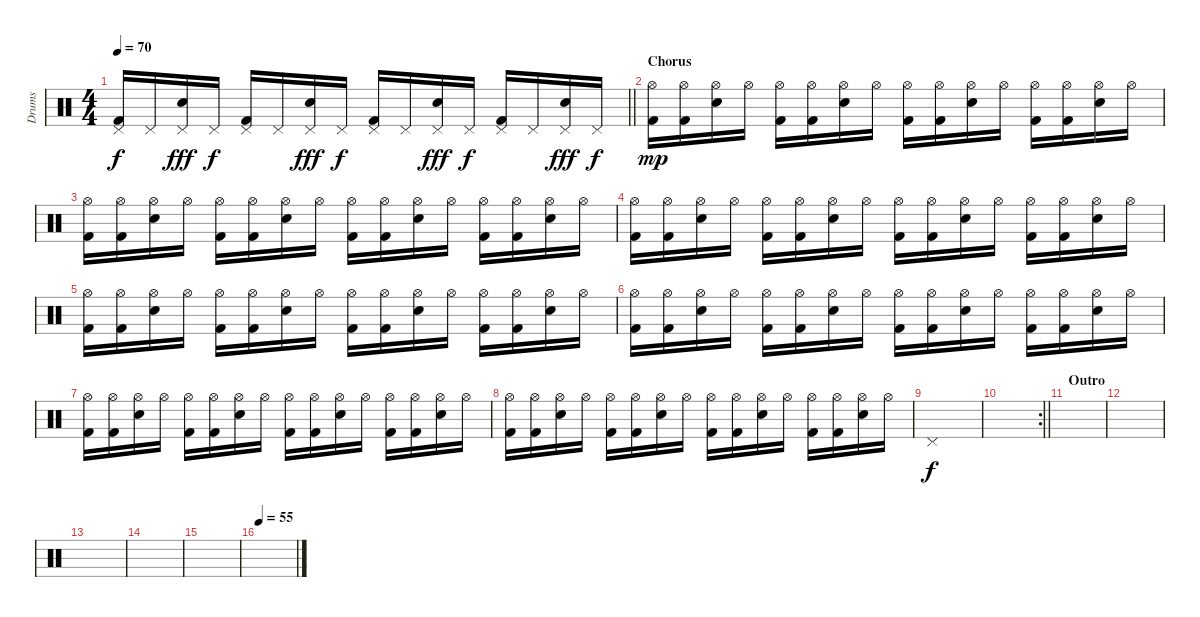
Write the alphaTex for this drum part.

\track ("Drums" "Drums") {instrument percussion}
\staff {score}
\articulation defaults
\ts (4 4)
\tempo 70
\clef neutral
\barLineRight lightlight
\ks c
("Kick (hit) 2" "Pedal Hi-Hat (hit)").16{dy f} "Pedal Hi-Hat (hit)".16 ("Electric Snare (hit)" "Pedal Hi-Hat (hit)").16{dy fff} "Pedal Hi-Hat (hit)".16{dy f} ("Kick (hit) 2" "Pedal Hi-Hat (hit)").16 "Pedal Hi-Hat (hit)".16 ("Electric Snare (hit)" "Pedal Hi-Hat (hit)").16{dy fff} "Pedal Hi-Hat (hit)".16{dy f} ("Kick (hit) 2" "Pedal Hi-Hat (hit)").16 "Pedal Hi-Hat (hit)".16 ("Electric Snare (hit)" "Pedal Hi-Hat (hit)").16{dy fff} "Pedal Hi-Hat (hit)".16{dy f} ("Kick (hit) 2" "Pedal Hi-Hat (hit)").16 "Pedal Hi-Hat (hit)".16 ("Electric Snare (hit)" "Pedal Hi-Hat (hit)").16{dy fff} "Pedal Hi-Hat (hit)".16{dy f} |
\section ("" "Chorus")
("Kick (hit) 2" "Hi-Hat (open)").16{dy mp} ("Kick (hit) 2" "Hi-Hat (open)").16 ("Electric Snare (hit)" "Hi-Hat (open)").16 "Hi-Hat (open)".16 ("Kick (hit) 2" "Hi-Hat (open)").16 ("Kick (hit) 2" "Hi-Hat (open)").16 ("Electric Snare (hit)" "Hi-Hat (open)").16 "Hi-Hat (open)".16 ("Kick (hit) 2" "Hi-Hat (open)").16 ("Kick (hit) 2" "Hi-Hat (open)").16 ("Electric Snare (hit)" "Hi-Hat (open)").16 "Hi-Hat (open)".16 ("Kick (hit) 2" "Hi-Hat (open)").16 ("Kick (hit) 2" "Hi-Hat (open)").16 ("Electric Snare (hit)" "Hi-Hat (open)").16 "Hi-Hat (open)".16 |
("Kick (hit) 2" "Hi-Hat (open)").16 ("Kick (hit) 2" "Hi-Hat (open)").16 ("Electric Snare (hit)" "Hi-Hat (open)").16 "Hi-Hat (open)".16 ("Kick (hit) 2" "Hi-Hat (open)").16 ("Kick (hit) 2" "Hi-Hat (open)").16 ("Electric Snare (hit)" "Hi-Hat (open)").16 "Hi-Hat (open)".16 ("Kick (hit) 2" "Hi-Hat (open)").16 ("Kick (hit) 2" "Hi-Hat (open)").16 ("Electric Snare (hit)" "Hi-Hat (open)").16 "Hi-Hat (open)".16 ("Kick (hit) 2" "Hi-Hat (open)").16 ("Kick (hit) 2" "Hi-Hat (open)").16 ("Electric Snare (hit)" "Hi-Hat (open)").16 "Hi-Hat (open)".16 |
("Kick (hit) 2" "Hi-Hat (open)").16 ("Kick (hit) 2" "Hi-Hat (open)").16 ("Electric Snare (hit)" "Hi-Hat (open)").16 "Hi-Hat (open)".16 ("Kick (hit) 2" "Hi-Hat (open)").16 ("Kick (hit) 2" "Hi-Hat (open)").16 ("Electric Snare (hit)" "Hi-Hat (open)").16 "Hi-Hat (open)".16 ("Kick (hit) 2" "Hi-Hat (open)").16 ("Kick (hit) 2" "Hi-Hat (open)").16 ("Electric Snare (hit)" "Hi-Hat (open)").16 "Hi-Hat (open)".16 ("Kick (hit) 2" "Hi-Hat (open)").16 ("Kick (hit) 2" "Hi-Hat (open)").16 ("Electric Snare (hit)" "Hi-Hat (open)").16 "Hi-Hat (open)".16 |
("Kick (hit) 2" "Hi-Hat (open)").16 ("Kick (hit) 2" "Hi-Hat (open)").16 ("Electric Snare (hit)" "Hi-Hat (open)").16 "Hi-Hat (open)".16 ("Kick (hit) 2" "Hi-Hat (open)").16 ("Kick (hit) 2" "Hi-Hat (open)").16 ("Electric Snare (hit)" "Hi-Hat (open)").16 "Hi-Hat (open)".16 ("Kick (hit) 2" "Hi-Hat (open)").16 ("Kick (hit) 2" "Hi-Hat (open)").16 ("Electric Snare (hit)" "Hi-Hat (open)").16 "Hi-Hat (open)".16 ("Kick (hit) 2" "Hi-Hat (open)").16 ("Kick (hit) 2" "Hi-Hat (open)").16 ("Electric Snare (hit)" "Hi-Hat (open)").16 "Hi-Hat (open)".16 |
("Kick (hit) 2" "Hi-Hat (open)").16 ("Kick (hit) 2" "Hi-Hat (open)").16 ("Electric Snare (hit)" "Hi-Hat (open)").16 "Hi-Hat (open)".16 ("Kick (hit) 2" "Hi-Hat (open)").16 ("Kick (hit) 2" "Hi-Hat (open)").16 ("Electric Snare (hit)" "Hi-Hat (open)").16 "Hi-Hat (open)".16 ("Kick (hit) 2" "Hi-Hat (open)").16 ("Kick (hit) 2" "Hi-Hat (open)").16 ("Electric Snare (hit)" "Hi-Hat (open)").16 "Hi-Hat (open)".16 ("Kick (hit) 2" "Hi-Hat (open)").16 ("Kick (hit) 2" "Hi-Hat (open)").16 ("Electric Snare (hit)" "Hi-Hat (open)").16 "Hi-Hat (open)".16 |
("Kick (hit) 2" "Hi-Hat (open)").16 ("Kick (hit) 2" "Hi-Hat (open)").16 ("Electric Snare (hit)" "Hi-Hat (open)").16 "Hi-Hat (open)".16 ("Kick (hit) 2" "Hi-Hat (open)").16 ("Kick (hit) 2" "Hi-Hat (open)").16 ("Electric Snare (hit)" "Hi-Hat (open)").16 "Hi-Hat (open)".16 ("Kick (hit) 2" "Hi-Hat (open)").16 ("Kick (hit) 2" "Hi-Hat (open)").16 ("Electric Snare (hit)" "Hi-Hat (open)").16 "Hi-Hat (open)".16 ("Kick (hit) 2" "Hi-Hat (open)").16 ("Kick (hit) 2" "Hi-Hat (open)").16 ("Electric Snare (hit)" "Hi-Hat (open)").16 "Hi-Hat (open)".16 |
("Kick (hit) 2" "Hi-Hat (open)").16 ("Kick (hit) 2" "Hi-Hat (open)").16 ("Electric Snare (hit)" "Hi-Hat (open)").16 "Hi-Hat (open)".16 ("Kick (hit) 2" "Hi-Hat (open)").16 ("Kick (hit) 2" "Hi-Hat (open)").16 ("Electric Snare (hit)" "Hi-Hat (open)").16 "Hi-Hat (open)".16 ("Kick (hit) 2" "Hi-Hat (open)").16 ("Kick (hit) 2" "Hi-Hat (open)").16 ("Electric Snare (hit)" "Hi-Hat (open)").16 "Hi-Hat (open)".16 ("Kick (hit) 2" "Hi-Hat (open)").16 ("Kick (hit) 2" "Hi-Hat (open)").16 ("Electric Snare (hit)" "Hi-Hat (open)").16 "Hi-Hat (open)".16 |
"Pedal Hi-Hat (hit)".1{dy f} |
\rc 2
\barLineRight lightlight
|
\section ("" "Outro")
|
|
|
|
|
\tempo 55
